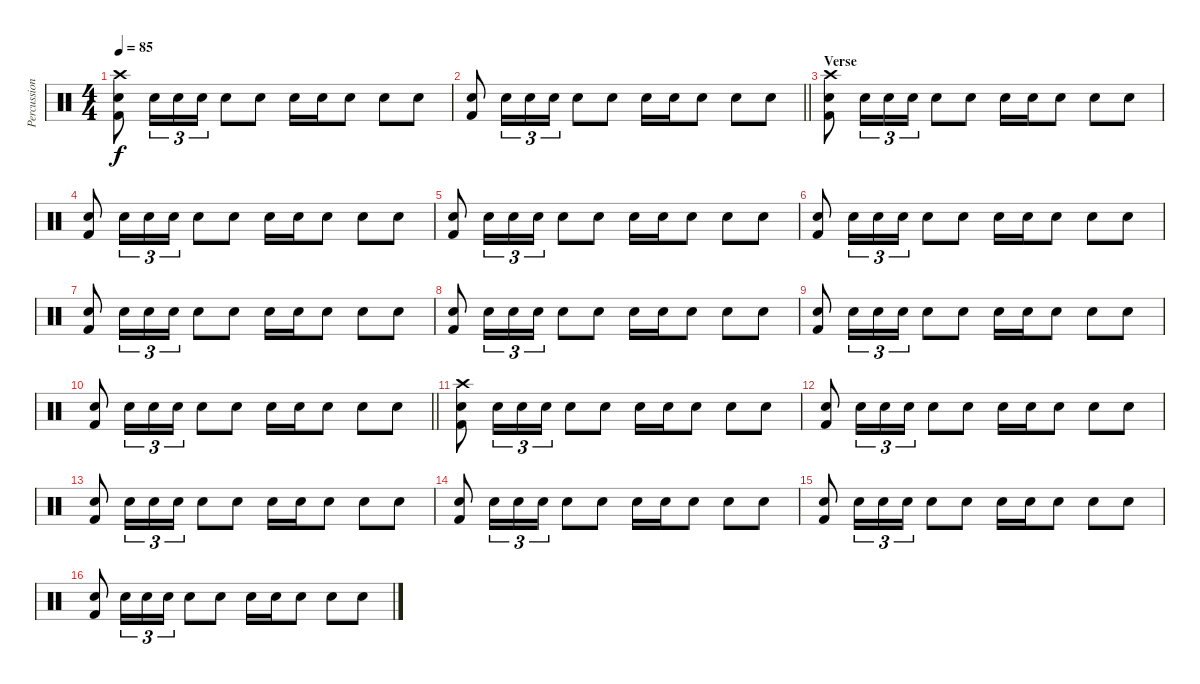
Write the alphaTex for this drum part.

\track ("Percussion" "Percussion") {instrument percussion}
\staff {score}
\articulation defaults
\ts (4 4)
\tempo 85
\clef neutral
\ks c
("Crash high (hit)" "Electric Snare (hit)" "Kick (hit) 2").8{dy f} "Electric Snare (hit)".16{tu (3 2)} "Electric Snare (hit)".16{tu (3 2)} "Electric Snare (hit)".16{tu (3 2)} "Electric Snare (hit)".8 "Electric Snare (hit)".8 "Electric Snare (hit)".16 "Electric Snare (hit)".16 "Electric Snare (hit)".8 "Electric Snare (hit)".8 "Electric Snare (hit)".8 |
\barLineRight lightlight
("Electric Snare (hit)" "Kick (hit) 2").8 "Electric Snare (hit)".16{tu (3 2)} "Electric Snare (hit)".16{tu (3 2)} "Electric Snare (hit)".16{tu (3 2)} "Electric Snare (hit)".8 "Electric Snare (hit)".8 "Electric Snare (hit)".16 "Electric Snare (hit)".16 "Electric Snare (hit)".8 "Electric Snare (hit)".8 "Electric Snare (hit)".8 |
\section ("" "Verse")
("Crash high (hit)" "Electric Snare (hit)" "Kick (hit) 2").8 "Electric Snare (hit)".16{tu (3 2)} "Electric Snare (hit)".16{tu (3 2)} "Electric Snare (hit)".16{tu (3 2)} "Electric Snare (hit)".8 "Electric Snare (hit)".8 "Electric Snare (hit)".16 "Electric Snare (hit)".16 "Electric Snare (hit)".8 "Electric Snare (hit)".8 "Electric Snare (hit)".8 |
("Electric Snare (hit)" "Kick (hit) 2").8 "Electric Snare (hit)".16{tu (3 2)} "Electric Snare (hit)".16{tu (3 2)} "Electric Snare (hit)".16{tu (3 2)} "Electric Snare (hit)".8 "Electric Snare (hit)".8 "Electric Snare (hit)".16 "Electric Snare (hit)".16 "Electric Snare (hit)".8 "Electric Snare (hit)".8 "Electric Snare (hit)".8 |
("Electric Snare (hit)" "Kick (hit) 2").8 "Electric Snare (hit)".16{tu (3 2)} "Electric Snare (hit)".16{tu (3 2)} "Electric Snare (hit)".16{tu (3 2)} "Electric Snare (hit)".8 "Electric Snare (hit)".8 "Electric Snare (hit)".16 "Electric Snare (hit)".16 "Electric Snare (hit)".8 "Electric Snare (hit)".8 "Electric Snare (hit)".8 |
("Electric Snare (hit)" "Kick (hit) 2").8 "Electric Snare (hit)".16{tu (3 2)} "Electric Snare (hit)".16{tu (3 2)} "Electric Snare (hit)".16{tu (3 2)} "Electric Snare (hit)".8 "Electric Snare (hit)".8 "Electric Snare (hit)".16 "Electric Snare (hit)".16 "Electric Snare (hit)".8 "Electric Snare (hit)".8 "Electric Snare (hit)".8 |
("Electric Snare (hit)" "Kick (hit) 2").8 "Electric Snare (hit)".16{tu (3 2)} "Electric Snare (hit)".16{tu (3 2)} "Electric Snare (hit)".16{tu (3 2)} "Electric Snare (hit)".8 "Electric Snare (hit)".8 "Electric Snare (hit)".16 "Electric Snare (hit)".16 "Electric Snare (hit)".8 "Electric Snare (hit)".8 "Electric Snare (hit)".8 |
("Electric Snare (hit)" "Kick (hit) 2").8 "Electric Snare (hit)".16{tu (3 2)} "Electric Snare (hit)".16{tu (3 2)} "Electric Snare (hit)".16{tu (3 2)} "Electric Snare (hit)".8 "Electric Snare (hit)".8 "Electric Snare (hit)".16 "Electric Snare (hit)".16 "Electric Snare (hit)".8 "Electric Snare (hit)".8 "Electric Snare (hit)".8 |
("Electric Snare (hit)" "Kick (hit) 2").8 "Electric Snare (hit)".16{tu (3 2)} "Electric Snare (hit)".16{tu (3 2)} "Electric Snare (hit)".16{tu (3 2)} "Electric Snare (hit)".8 "Electric Snare (hit)".8 "Electric Snare (hit)".16 "Electric Snare (hit)".16 "Electric Snare (hit)".8 "Electric Snare (hit)".8 "Electric Snare (hit)".8 |
\barLineRight lightlight
("Electric Snare (hit)" "Kick (hit) 2").8 "Electric Snare (hit)".16{tu (3 2)} "Electric Snare (hit)".16{tu (3 2)} "Electric Snare (hit)".16{tu (3 2)} "Electric Snare (hit)".8 "Electric Snare (hit)".8 "Electric Snare (hit)".16 "Electric Snare (hit)".16 "Electric Snare (hit)".8 "Electric Snare (hit)".8 "Electric Snare (hit)".8 |
("Crash high (hit)" "Electric Snare (hit)" "Kick (hit) 2").8 "Electric Snare (hit)".16{tu (3 2)} "Electric Snare (hit)".16{tu (3 2)} "Electric Snare (hit)".16{tu (3 2)} "Electric Snare (hit)".8 "Electric Snare (hit)".8 "Electric Snare (hit)".16 "Electric Snare (hit)".16 "Electric Snare (hit)".8 "Electric Snare (hit)".8 "Electric Snare (hit)".8 |
("Electric Snare (hit)" "Kick (hit) 2").8 "Electric Snare (hit)".16{tu (3 2)} "Electric Snare (hit)".16{tu (3 2)} "Electric Snare (hit)".16{tu (3 2)} "Electric Snare (hit)".8 "Electric Snare (hit)".8 "Electric Snare (hit)".16 "Electric Snare (hit)".16 "Electric Snare (hit)".8 "Electric Snare (hit)".8 "Electric Snare (hit)".8 |
("Electric Snare (hit)" "Kick (hit) 2").8 "Electric Snare (hit)".16{tu (3 2)} "Electric Snare (hit)".16{tu (3 2)} "Electric Snare (hit)".16{tu (3 2)} "Electric Snare (hit)".8 "Electric Snare (hit)".8 "Electric Snare (hit)".16 "Electric Snare (hit)".16 "Electric Snare (hit)".8 "Electric Snare (hit)".8 "Electric Snare (hit)".8 |
("Electric Snare (hit)" "Kick (hit) 2").8 "Electric Snare (hit)".16{tu (3 2)} "Electric Snare (hit)".16{tu (3 2)} "Electric Snare (hit)".16{tu (3 2)} "Electric Snare (hit)".8 "Electric Snare (hit)".8 "Electric Snare (hit)".16 "Electric Snare (hit)".16 "Electric Snare (hit)".8 "Electric Snare (hit)".8 "Electric Snare (hit)".8 |
("Electric Snare (hit)" "Kick (hit) 2").8 "Electric Snare (hit)".16{tu (3 2)} "Electric Snare (hit)".16{tu (3 2)} "Electric Snare (hit)".16{tu (3 2)} "Electric Snare (hit)".8 "Electric Snare (hit)".8 "Electric Snare (hit)".16 "Electric Snare (hit)".16 "Electric Snare (hit)".8 "Electric Snare (hit)".8 "Electric Snare (hit)".8 |
("Electric Snare (hit)" "Kick (hit) 2").8 "Electric Snare (hit)".16{tu (3 2)} "Electric Snare (hit)".16{tu (3 2)} "Electric Snare (hit)".16{tu (3 2)} "Electric Snare (hit)".8 "Electric Snare (hit)".8 "Electric Snare (hit)".16 "Electric Snare (hit)".16 "Electric Snare (hit)".8 "Electric Snare (hit)".8 "Electric Snare (hit)".8
